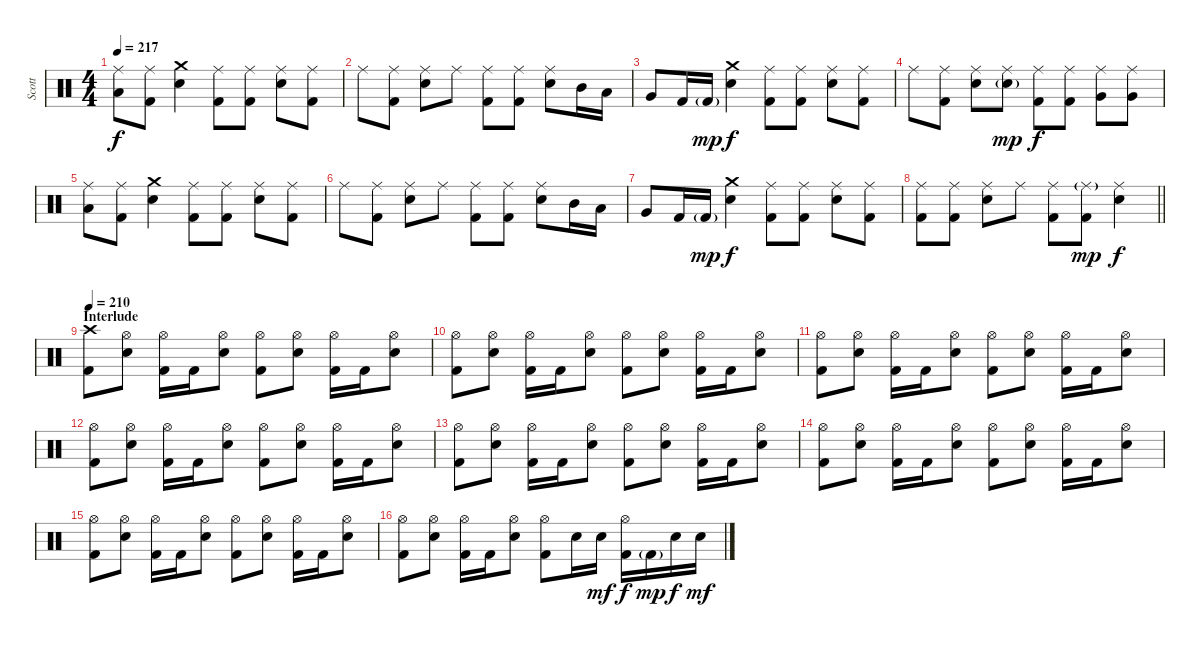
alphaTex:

\track ("Scott" "Scott") {instrument percussion}
\staff {score}
\articulation defaults
\ts (4 4)
\tempo 217
\clef neutral
\ks c
("Ride (middle)" "Low Floor Tom (hit)").8{dy f} ("Ride (middle)" "Kick (hit) 2").8 ("Crash medium (hit)" "Electric Snare (hit)").4 ("Ride (middle)" "Kick (hit) 2").8 ("Ride (middle)" "Kick (hit) 2").8 ("Ride (middle)" "Electric Snare (hit)").8 ("Ride (middle)" "Kick (hit) 2").8 |
"Ride (middle)".8 ("Ride (middle)" "Kick (hit) 2").8 ("Ride (middle)" "Electric Snare (hit)").8 "Ride (middle)".8 ("Ride (middle)" "Kick (hit) 2").8 ("Ride (middle)" "Kick (hit) 2").8 ("Ride (middle)" "Electric Snare (hit)").8 "Mid Tom (hit)".16 "Low Tom (hit)".16 |
"Very Low Tom (hit)".8 "Kick (hit) 2".16 "Kick (hit) 2"{g}.16{dy mp} ("Crash medium (hit)" "Electric Snare (hit)").4{dy f} ("Ride (middle)" "Kick (hit) 2").8 ("Ride (middle)" "Kick (hit) 2").8 ("Ride (middle)" "Electric Snare (hit)").8 ("Ride (middle)" "Kick (hit) 2").8 |
"Ride (middle)".8 ("Ride (middle)" "Kick (hit) 2").8 ("Ride (middle)" "Electric Snare (hit)").8 ("Ride (middle)" "Electric Snare (hit)"{g}).8{dy mp} ("Ride (middle)" "Kick (hit) 2").8{dy f} ("Ride (middle)" "Kick (hit) 2").8 ("Ride (middle)" "Very Low Tom (hit)").8 ("Ride (middle)" "Very Low Tom (hit)").8 |
("Ride (middle)" "Low Floor Tom (hit)").8 ("Ride (middle)" "Kick (hit) 2").8 ("Crash medium (hit)" "Electric Snare (hit)").4 ("Ride (middle)" "Kick (hit) 2").8 ("Ride (middle)" "Kick (hit) 2").8 ("Ride (middle)" "Electric Snare (hit)").8 ("Ride (middle)" "Kick (hit) 2").8 |
"Ride (middle)".8 ("Ride (middle)" "Kick (hit) 2").8 ("Ride (middle)" "Electric Snare (hit)").8 "Ride (middle)".8 ("Ride (middle)" "Kick (hit) 2").8 ("Ride (middle)" "Kick (hit) 2").8 ("Ride (middle)" "Electric Snare (hit)").8 "Mid Tom (hit)".16 "Low Tom (hit)".16 |
"Very Low Tom (hit)".8 "Kick (hit) 2".16 "Kick (hit) 2"{g}.16{dy mp} ("Crash medium (hit)" "Electric Snare (hit)").4{dy f} ("Ride (middle)" "Kick (hit) 2").8 ("Ride (middle)" "Kick (hit) 2").8 ("Ride (middle)" "Electric Snare (hit)").8 ("Ride (middle)" "Kick (hit) 2").8 |
\barLineRight lightlight
("Ride (middle)" "Kick (hit) 2").8 ("Ride (middle)" "Kick (hit) 2").8 ("Ride (middle)" "Electric Snare (hit)").8 "Ride (middle)".8 ("Ride (middle)" "Kick (hit) 2").8 ("Ride (middle)"{g} "Kick (hit) 2").8{dy mp} ("Ride (middle)" "Electric Snare (hit)").4{dy f} |
\section ("" "Interlude")
\tempo 210
("Crash high (hit)" "Kick (hit) 2").8 ("Hi-Hat (open)" "Electric Snare (hit)").8 ("Hi-Hat (open)" "Kick (hit) 2").16 "Kick (hit) 2".16 ("Hi-Hat (open)" "Electric Snare (hit)").8 ("Hi-Hat (open)" "Kick (hit) 2").8 ("Hi-Hat (open)" "Electric Snare (hit)").8 ("Hi-Hat (open)" "Kick (hit) 2").16 "Kick (hit) 2".16 ("Hi-Hat (open)" "Electric Snare (hit)").8 |
("Hi-Hat (open)" "Kick (hit) 2").8 ("Hi-Hat (open)" "Electric Snare (hit)").8 ("Hi-Hat (open)" "Kick (hit) 2").16 "Kick (hit) 2".16 ("Hi-Hat (open)" "Electric Snare (hit)").8 ("Hi-Hat (open)" "Kick (hit) 2").8 ("Hi-Hat (open)" "Electric Snare (hit)").8 ("Hi-Hat (open)" "Kick (hit) 2").16 "Kick (hit) 2".16 ("Hi-Hat (open)" "Electric Snare (hit)").8 |
("Hi-Hat (open)" "Kick (hit) 2").8 ("Hi-Hat (open)" "Electric Snare (hit)").8 ("Hi-Hat (open)" "Kick (hit) 2").16 "Kick (hit) 2".16 ("Hi-Hat (open)" "Electric Snare (hit)").8 ("Hi-Hat (open)" "Kick (hit) 2").8 ("Hi-Hat (open)" "Electric Snare (hit)").8 ("Hi-Hat (open)" "Kick (hit) 2").16 "Kick (hit) 2".16 ("Hi-Hat (open)" "Electric Snare (hit)").8 |
("Hi-Hat (open)" "Kick (hit) 2").8 ("Hi-Hat (open)" "Electric Snare (hit)").8 ("Hi-Hat (open)" "Kick (hit) 2").16 "Kick (hit) 2".16 ("Hi-Hat (open)" "Electric Snare (hit)").8 ("Hi-Hat (open)" "Kick (hit) 2").8 ("Hi-Hat (open)" "Electric Snare (hit)").8 ("Hi-Hat (open)" "Kick (hit) 2").16 "Kick (hit) 2".16 ("Hi-Hat (open)" "Electric Snare (hit)").8 |
("Hi-Hat (open)" "Kick (hit) 2").8 ("Hi-Hat (open)" "Electric Snare (hit)").8 ("Hi-Hat (open)" "Kick (hit) 2").16 "Kick (hit) 2".16 ("Hi-Hat (open)" "Electric Snare (hit)").8 ("Hi-Hat (open)" "Kick (hit) 2").8 ("Hi-Hat (open)" "Electric Snare (hit)").8 ("Hi-Hat (open)" "Kick (hit) 2").16 "Kick (hit) 2".16 ("Hi-Hat (open)" "Electric Snare (hit)").8 |
("Hi-Hat (open)" "Kick (hit) 2").8 ("Hi-Hat (open)" "Electric Snare (hit)").8 ("Hi-Hat (open)" "Kick (hit) 2").16 "Kick (hit) 2".16 ("Hi-Hat (open)" "Electric Snare (hit)").8 ("Hi-Hat (open)" "Kick (hit) 2").8 ("Hi-Hat (open)" "Electric Snare (hit)").8 ("Hi-Hat (open)" "Kick (hit) 2").16 "Kick (hit) 2".16 ("Hi-Hat (open)" "Electric Snare (hit)").8 |
("Hi-Hat (open)" "Kick (hit) 2").8 ("Hi-Hat (open)" "Electric Snare (hit)").8 ("Hi-Hat (open)" "Kick (hit) 2").16 "Kick (hit) 2".16 ("Hi-Hat (open)" "Electric Snare (hit)").8 ("Hi-Hat (open)" "Kick (hit) 2").8 ("Hi-Hat (open)" "Electric Snare (hit)").8 ("Hi-Hat (open)" "Kick (hit) 2").16 "Kick (hit) 2".16 ("Hi-Hat (open)" "Electric Snare (hit)").8 |
("Hi-Hat (open)" "Kick (hit) 2").8 ("Hi-Hat (open)" "Electric Snare (hit)").8 ("Hi-Hat (open)" "Kick (hit) 2").16 "Kick (hit) 2".16 ("Hi-Hat (open)" "Electric Snare (hit)").8 ("Hi-Hat (open)" "Kick (hit) 2").8 "Electric Snare (hit)".16 "Electric Snare (hit)".16{dy mf} ("Hi-Hat (open)" "Kick (hit) 2").16{dy f} "Kick (hit) 2"{g}.16{dy mp} "Electric Snare (hit)".16{dy f} "Electric Snare (hit)".16{dy mf}
